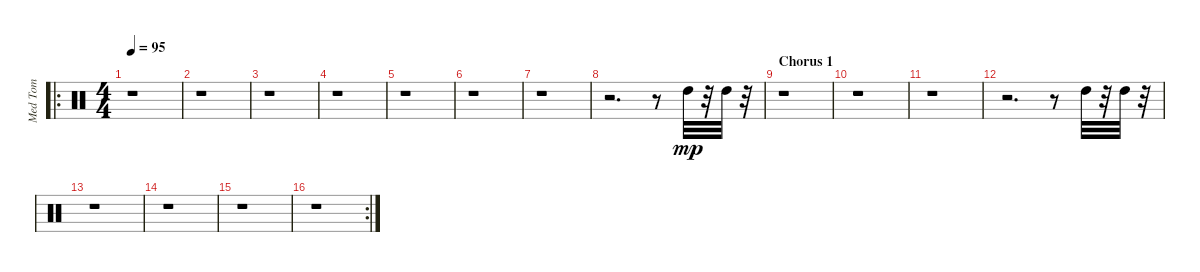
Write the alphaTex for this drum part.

\track ("Med Tom" "Med Tom") {instrument percussion}
\staff {score}
\articulation defaults
\ro
\ts (4 4)
\tempo 95
\clef neutral
\ks c
r.1{dy mp} |
r.1 |
r.1 |
r.1 |
r.1 |
r.1 |
r.1 |
r.2{d} r.8 "High Tom (hit)".32 r.32 "High Tom (hit)".32 r.32 |
\section ("" "Chorus 1")
r.1 |
r.1 |
r.1 |
r.2{d} r.8 "High Tom (hit)".32 r.32 "High Tom (hit)".32 r.32 |
r.1 |
r.1 |
r.1 |
\rc 2
r.1
